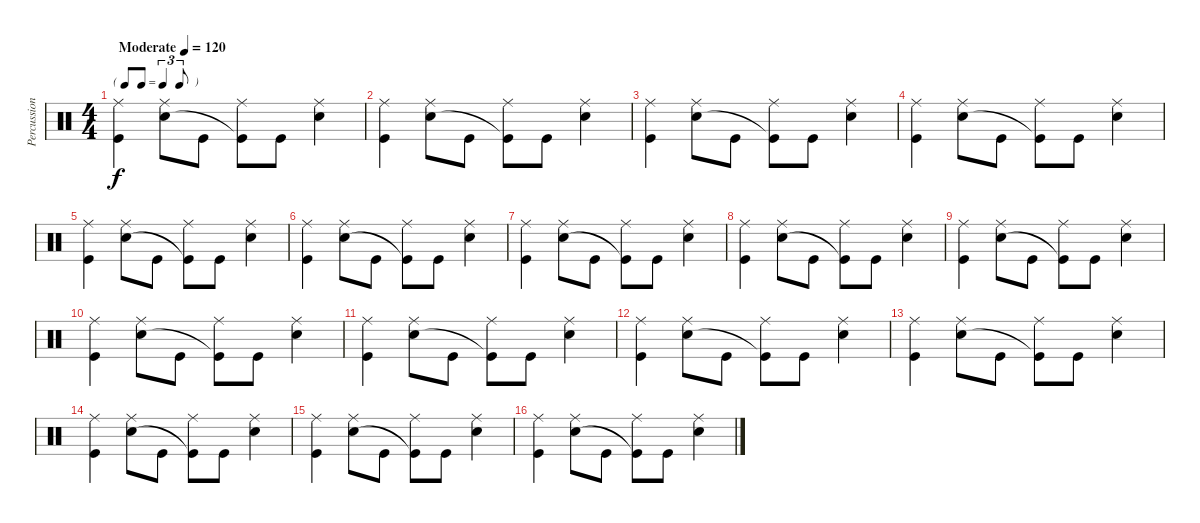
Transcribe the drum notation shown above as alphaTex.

\track ("Percussion" "Percussion") {instrument percussion}
\staff {score}
\articulation defaults
\ts (4 4)
\tf triplet8th
\tempo (120 "Moderate")
\clef neutral
\ks c
("Ride (middle)" "Kick (hit)").4{dy f} ("Ride (middle)" "Snare (hit) 2").8 "Kick (hit)".8 ("Ride (middle)" "Kick (hit)"{t}).8 "Kick (hit)".8 ("Ride (middle)" "Snare (hit) 2").4 |
("Ride (middle)" "Kick (hit)").4 ("Ride (middle)" "Snare (hit) 2").8 "Kick (hit)".8 ("Ride (middle)" "Kick (hit)"{t}).8 "Kick (hit)".8 ("Ride (middle)" "Snare (hit) 2").4 |
("Ride (middle)" "Kick (hit)").4 ("Ride (middle)" "Snare (hit) 2").8 "Kick (hit)".8 ("Ride (middle)" "Kick (hit)"{t}).8 "Kick (hit)".8 ("Ride (middle)" "Snare (hit) 2").4 |
("Ride (middle)" "Kick (hit)").4 ("Ride (middle)" "Snare (hit) 2").8 "Kick (hit)".8 ("Ride (middle)" "Kick (hit)"{t}).8 "Kick (hit)".8 ("Ride (middle)" "Snare (hit) 2").4 |
("Ride (middle)" "Kick (hit)").4 ("Ride (middle)" "Snare (hit) 2").8 "Kick (hit)".8 ("Ride (middle)" "Kick (hit)"{t}).8 "Kick (hit)".8 ("Ride (middle)" "Snare (hit) 2").4 |
("Ride (middle)" "Kick (hit)").4 ("Ride (middle)" "Snare (hit) 2").8 "Kick (hit)".8 ("Ride (middle)" "Kick (hit)"{t}).8 "Kick (hit)".8 ("Ride (middle)" "Snare (hit) 2").4 |
("Ride (middle)" "Kick (hit)").4 ("Ride (middle)" "Snare (hit) 2").8 "Kick (hit)".8 ("Ride (middle)" "Kick (hit)"{t}).8 "Kick (hit)".8 ("Ride (middle)" "Snare (hit) 2").4 |
("Ride (middle)" "Kick (hit)").4 ("Ride (middle)" "Snare (hit) 2").8 "Kick (hit)".8 ("Ride (middle)" "Kick (hit)"{t}).8 "Kick (hit)".8 ("Ride (middle)" "Snare (hit) 2").4 |
("Ride (middle)" "Kick (hit)").4 ("Ride (middle)" "Snare (hit) 2").8 "Kick (hit)".8 ("Ride (middle)" "Kick (hit)"{t}).8 "Kick (hit)".8 ("Ride (middle)" "Snare (hit) 2").4 |
("Ride (middle)" "Kick (hit)").4 ("Ride (middle)" "Snare (hit) 2").8 "Kick (hit)".8 ("Ride (middle)" "Kick (hit)"{t}).8 "Kick (hit)".8 ("Ride (middle)" "Snare (hit) 2").4 |
("Ride (middle)" "Kick (hit)").4 ("Ride (middle)" "Snare (hit) 2").8 "Kick (hit)".8 ("Ride (middle)" "Kick (hit)"{t}).8 "Kick (hit)".8 ("Ride (middle)" "Snare (hit) 2").4 |
("Ride (middle)" "Kick (hit)").4 ("Ride (middle)" "Snare (hit) 2").8 "Kick (hit)".8 ("Ride (middle)" "Kick (hit)"{t}).8 "Kick (hit)".8 ("Ride (middle)" "Snare (hit) 2").4 |
("Ride (middle)" "Kick (hit)").4 ("Ride (middle)" "Snare (hit) 2").8 "Kick (hit)".8 ("Ride (middle)" "Kick (hit)"{t}).8 "Kick (hit)".8 ("Ride (middle)" "Snare (hit) 2").4 |
("Ride (middle)" "Kick (hit)").4 ("Ride (middle)" "Snare (hit) 2").8 "Kick (hit)".8 ("Ride (middle)" "Kick (hit)"{t}).8 "Kick (hit)".8 ("Ride (middle)" "Snare (hit) 2").4 |
("Ride (middle)" "Kick (hit)").4 ("Ride (middle)" "Snare (hit) 2").8 "Kick (hit)".8 ("Ride (middle)" "Kick (hit)"{t}).8 "Kick (hit)".8 ("Ride (middle)" "Snare (hit) 2").4 |
("Ride (middle)" "Kick (hit)").4 ("Ride (middle)" "Snare (hit) 2").8 "Kick (hit)".8 ("Ride (middle)" "Kick (hit)"{t}).8 "Kick (hit)".8 ("Ride (middle)" "Snare (hit) 2").4
